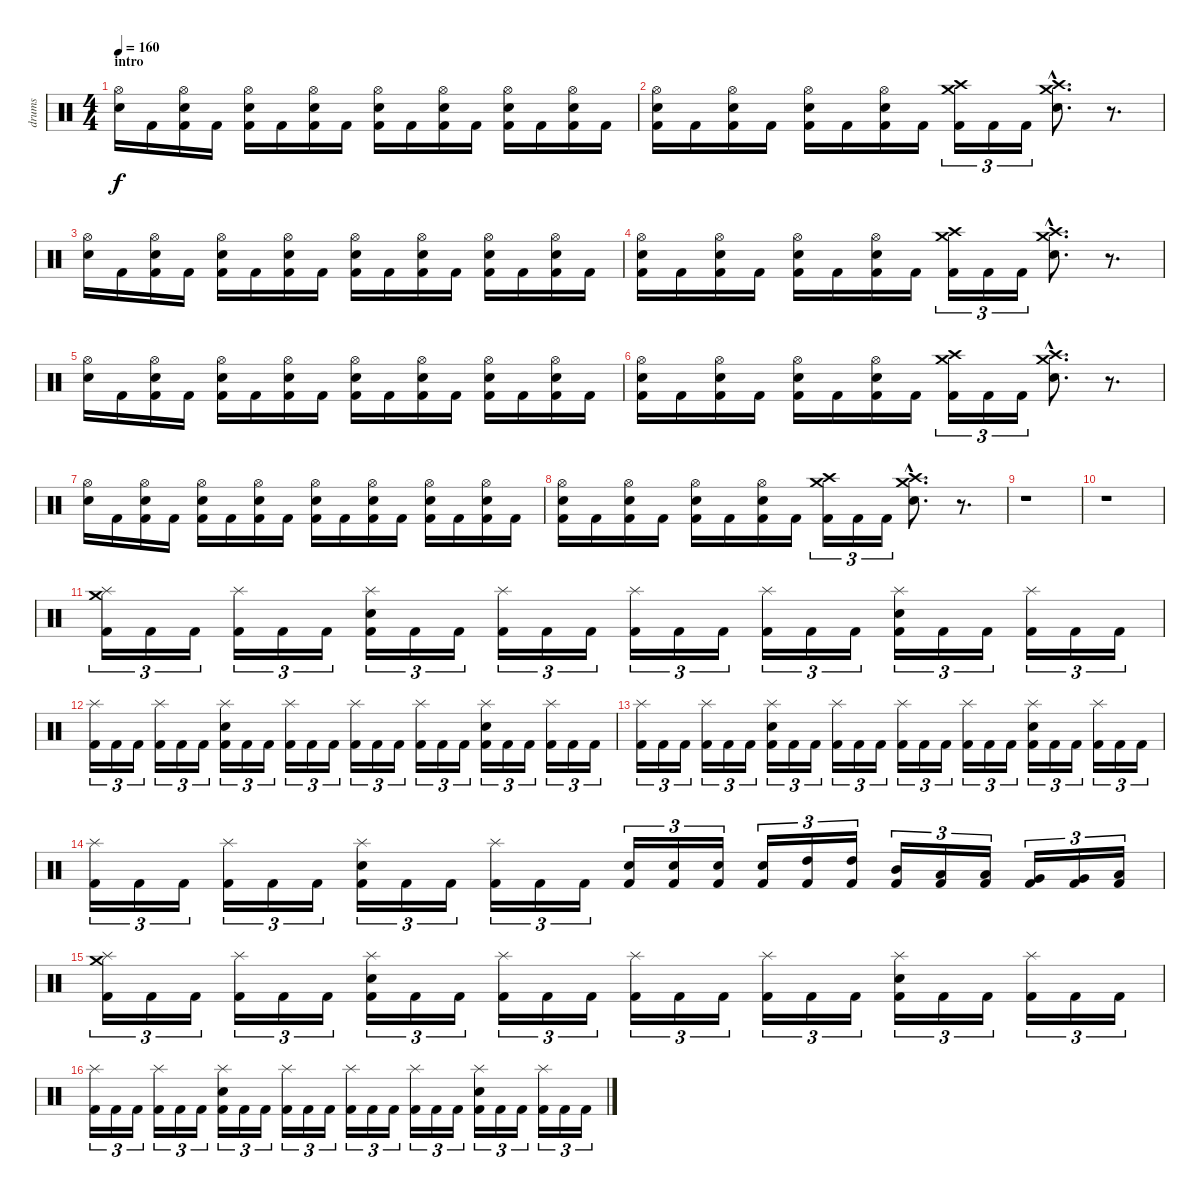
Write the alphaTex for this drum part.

\track ("drums" "drums") {instrument percussion}
\staff {score}
\articulation defaults
\ts (4 4)
\section ("" "intro")
\tempo 160
\clef neutral
\ks c
("Hi-Hat (open)" "Snare (hit) 2").16{dy f} "Kick (hit) 2".16 ("Hi-Hat (open)" "Snare (hit) 2" "Kick (hit) 2").16 "Kick (hit) 2".16 ("Hi-Hat (open)" "Snare (hit) 2" "Kick (hit) 2").16 "Kick (hit) 2".16 ("Hi-Hat (open)" "Snare (hit) 2" "Kick (hit) 2").16 "Kick (hit) 2".16 ("Hi-Hat (open)" "Snare (hit) 2" "Kick (hit) 2").16 "Kick (hit) 2".16 ("Hi-Hat (open)" "Snare (hit) 2" "Kick (hit) 2").16 "Kick (hit) 2".16 ("Hi-Hat (open)" "Snare (hit) 2" "Kick (hit) 2").16 "Kick (hit) 2".16 ("Hi-Hat (open)" "Snare (hit) 2" "Kick (hit) 2").16 "Kick (hit) 2".16 |
("Hi-Hat (open)" "Snare (hit) 2" "Kick (hit) 2").16 "Kick (hit) 2".16 ("Hi-Hat (open)" "Snare (hit) 2" "Kick (hit) 2").16 "Kick (hit) 2".16 ("Hi-Hat (open)" "Snare (hit) 2" "Kick (hit) 2").16 "Kick (hit) 2".16 ("Hi-Hat (open)" "Snare (hit) 2" "Kick (hit) 2").16 "Kick (hit) 2".16 ("Crash medium (hit)" "Crash high (hit)" "Kick (hit) 2").16{tu (3 2)} "Kick (hit) 2".16{tu (3 2)} "Kick (hit) 2".16{tu (3 2)} ("Crash medium (hit)"{hac} "Crash high (hit)"{hac} "Snare (hit) 2"{hac}).8{d} r.8{d} |
("Hi-Hat (open)" "Snare (hit) 2").16 "Kick (hit) 2".16 ("Hi-Hat (open)" "Snare (hit) 2" "Kick (hit) 2").16 "Kick (hit) 2".16 ("Hi-Hat (open)" "Snare (hit) 2" "Kick (hit) 2").16 "Kick (hit) 2".16 ("Hi-Hat (open)" "Snare (hit) 2" "Kick (hit) 2").16 "Kick (hit) 2".16 ("Hi-Hat (open)" "Snare (hit) 2" "Kick (hit) 2").16 "Kick (hit) 2".16 ("Hi-Hat (open)" "Snare (hit) 2" "Kick (hit) 2").16 "Kick (hit) 2".16 ("Hi-Hat (open)" "Snare (hit) 2" "Kick (hit) 2").16 "Kick (hit) 2".16 ("Hi-Hat (open)" "Snare (hit) 2" "Kick (hit) 2").16 "Kick (hit) 2".16 |
("Hi-Hat (open)" "Snare (hit) 2" "Kick (hit) 2").16 "Kick (hit) 2".16 ("Hi-Hat (open)" "Snare (hit) 2" "Kick (hit) 2").16 "Kick (hit) 2".16 ("Hi-Hat (open)" "Snare (hit) 2" "Kick (hit) 2").16 "Kick (hit) 2".16 ("Hi-Hat (open)" "Snare (hit) 2" "Kick (hit) 2").16 "Kick (hit) 2".16 ("Crash medium (hit)" "Crash high (hit)" "Kick (hit) 2").16{tu (3 2)} "Kick (hit) 2".16{tu (3 2)} "Kick (hit) 2".16{tu (3 2)} ("Crash medium (hit)"{hac} "Crash high (hit)"{hac} "Snare (hit) 2"{hac}).8{d} r.8{d} |
("Hi-Hat (open)" "Snare (hit) 2").16 "Kick (hit) 2".16 ("Hi-Hat (open)" "Snare (hit) 2" "Kick (hit) 2").16 "Kick (hit) 2".16 ("Hi-Hat (open)" "Snare (hit) 2" "Kick (hit) 2").16 "Kick (hit) 2".16 ("Hi-Hat (open)" "Snare (hit) 2" "Kick (hit) 2").16 "Kick (hit) 2".16 ("Hi-Hat (open)" "Snare (hit) 2" "Kick (hit) 2").16 "Kick (hit) 2".16 ("Hi-Hat (open)" "Snare (hit) 2" "Kick (hit) 2").16 "Kick (hit) 2".16 ("Hi-Hat (open)" "Snare (hit) 2" "Kick (hit) 2").16 "Kick (hit) 2".16 ("Hi-Hat (open)" "Snare (hit) 2" "Kick (hit) 2").16 "Kick (hit) 2".16 |
("Hi-Hat (open)" "Snare (hit) 2" "Kick (hit) 2").16 "Kick (hit) 2".16 ("Hi-Hat (open)" "Snare (hit) 2" "Kick (hit) 2").16 "Kick (hit) 2".16 ("Hi-Hat (open)" "Snare (hit) 2" "Kick (hit) 2").16 "Kick (hit) 2".16 ("Hi-Hat (open)" "Snare (hit) 2" "Kick (hit) 2").16 "Kick (hit) 2".16 ("Crash medium (hit)" "Crash high (hit)" "Kick (hit) 2").16{tu (3 2)} "Kick (hit) 2".16{tu (3 2)} "Kick (hit) 2".16{tu (3 2)} ("Crash medium (hit)"{hac} "Crash high (hit)"{hac} "Snare (hit) 2"{hac}).8{d} r.8{d} |
("Hi-Hat (open)" "Snare (hit) 2").16 "Kick (hit) 2".16 ("Hi-Hat (open)" "Snare (hit) 2" "Kick (hit) 2").16 "Kick (hit) 2".16 ("Hi-Hat (open)" "Snare (hit) 2" "Kick (hit) 2").16 "Kick (hit) 2".16 ("Hi-Hat (open)" "Snare (hit) 2" "Kick (hit) 2").16 "Kick (hit) 2".16 ("Hi-Hat (open)" "Snare (hit) 2" "Kick (hit) 2").16 "Kick (hit) 2".16 ("Hi-Hat (open)" "Snare (hit) 2" "Kick (hit) 2").16 "Kick (hit) 2".16 ("Hi-Hat (open)" "Snare (hit) 2" "Kick (hit) 2").16 "Kick (hit) 2".16 ("Hi-Hat (open)" "Snare (hit) 2" "Kick (hit) 2").16 "Kick (hit) 2".16 |
("Hi-Hat (open)" "Snare (hit) 2" "Kick (hit) 2").16 "Kick (hit) 2".16 ("Hi-Hat (open)" "Snare (hit) 2" "Kick (hit) 2").16 "Kick (hit) 2".16 ("Hi-Hat (open)" "Snare (hit) 2" "Kick (hit) 2").16 "Kick (hit) 2".16 ("Hi-Hat (open)" "Snare (hit) 2" "Kick (hit) 2").16 "Kick (hit) 2".16 ("Crash medium (hit)" "Crash high (hit)" "Kick (hit) 2").16{tu (3 2)} "Kick (hit) 2".16{tu (3 2)} "Kick (hit) 2".16{tu (3 2)} ("Crash medium (hit)"{hac} "Crash high (hit)"{hac} "Snare (hit) 2"{hac}).8{d} r.8{d} |
r.1 |
r.1 |
("Splash (hit)" "Crash medium (hit)" "Kick (hit) 2").16{tu (3 2)} "Kick (hit) 2".16{tu (3 2)} "Kick (hit) 2".16{tu (3 2)} ("Splash (hit)" "Kick (hit) 2").16{tu (3 2)} "Kick (hit) 2".16{tu (3 2)} "Kick (hit) 2".16{tu (3 2)} ("Splash (hit)" "Snare (hit) 2" "Kick (hit) 2").16{tu (3 2)} "Kick (hit) 2".16{tu (3 2)} "Kick (hit) 2".16{tu (3 2)} ("Splash (hit)" "Kick (hit) 2").16{tu (3 2)} "Kick (hit) 2".16{tu (3 2)} "Kick (hit) 2".16{tu (3 2)} ("Splash (hit)" "Kick (hit) 2").16{tu (3 2)} "Kick (hit) 2".16{tu (3 2)} "Kick (hit) 2".16{tu (3 2)} ("Splash (hit)" "Kick (hit) 2").16{tu (3 2)} "Kick (hit) 2".16{tu (3 2)} "Kick (hit) 2".16{tu (3 2)} ("Splash (hit)" "Snare (hit) 2" "Kick (hit) 2").16{tu (3 2)} "Kick (hit) 2".16{tu (3 2)} "Kick (hit) 2".16{tu (3 2)} ("Splash (hit)" "Kick (hit) 2").16{tu (3 2)} "Kick (hit) 2".16{tu (3 2)} "Kick (hit) 2".16{tu (3 2)} |
("Splash (hit)" "Kick (hit) 2").16{tu (3 2)} "Kick (hit) 2".16{tu (3 2)} "Kick (hit) 2".16{tu (3 2)} ("Splash (hit)" "Kick (hit) 2").16{tu (3 2)} "Kick (hit) 2".16{tu (3 2)} "Kick (hit) 2".16{tu (3 2)} ("Splash (hit)" "Snare (hit) 2" "Kick (hit) 2").16{tu (3 2)} "Kick (hit) 2".16{tu (3 2)} "Kick (hit) 2".16{tu (3 2)} ("Splash (hit)" "Kick (hit) 2").16{tu (3 2)} "Kick (hit) 2".16{tu (3 2)} "Kick (hit) 2".16{tu (3 2)} ("Splash (hit)" "Kick (hit) 2").16{tu (3 2)} "Kick (hit) 2".16{tu (3 2)} "Kick (hit) 2".16{tu (3 2)} ("Splash (hit)" "Kick (hit) 2").16{tu (3 2)} "Kick (hit) 2".16{tu (3 2)} "Kick (hit) 2".16{tu (3 2)} ("Splash (hit)" "Snare (hit) 2" "Kick (hit) 2").16{tu (3 2)} "Kick (hit) 2".16{tu (3 2)} "Kick (hit) 2".16{tu (3 2)} ("Splash (hit)" "Kick (hit) 2").16{tu (3 2)} "Kick (hit) 2".16{tu (3 2)} "Kick (hit) 2".16{tu (3 2)} |
("Splash (hit)" "Kick (hit) 2").16{tu (3 2)} "Kick (hit) 2".16{tu (3 2)} "Kick (hit) 2".16{tu (3 2)} ("Splash (hit)" "Kick (hit) 2").16{tu (3 2)} "Kick (hit) 2".16{tu (3 2)} "Kick (hit) 2".16{tu (3 2)} ("Splash (hit)" "Snare (hit) 2" "Kick (hit) 2").16{tu (3 2)} "Kick (hit) 2".16{tu (3 2)} "Kick (hit) 2".16{tu (3 2)} ("Splash (hit)" "Kick (hit) 2").16{tu (3 2)} "Kick (hit) 2".16{tu (3 2)} "Kick (hit) 2".16{tu (3 2)} ("Splash (hit)" "Kick (hit) 2").16{tu (3 2)} "Kick (hit) 2".16{tu (3 2)} "Kick (hit) 2".16{tu (3 2)} ("Splash (hit)" "Kick (hit) 2").16{tu (3 2)} "Kick (hit) 2".16{tu (3 2)} "Kick (hit) 2".16{tu (3 2)} ("Splash (hit)" "Snare (hit) 2" "Kick (hit) 2").16{tu (3 2)} "Kick (hit) 2".16{tu (3 2)} "Kick (hit) 2".16{tu (3 2)} ("Splash (hit)" "Kick (hit) 2").16{tu (3 2)} "Kick (hit) 2".16{tu (3 2)} "Kick (hit) 2".16{tu (3 2)} |
("Splash (hit)" "Kick (hit) 2").16{tu (3 2)} "Kick (hit) 2".16{tu (3 2)} "Kick (hit) 2".16{tu (3 2)} ("Splash (hit)" "Kick (hit) 2").16{tu (3 2)} "Kick (hit) 2".16{tu (3 2)} "Kick (hit) 2".16{tu (3 2)} ("Splash (hit)" "Snare (hit) 2" "Kick (hit) 2").16{tu (3 2)} "Kick (hit) 2".16{tu (3 2)} "Kick (hit) 2".16{tu (3 2)} ("Splash (hit)" "Kick (hit) 2").16{tu (3 2)} "Kick (hit) 2".16{tu (3 2)} "Kick (hit) 2".16{tu (3 2)} ("Snare (hit) 2" "Kick (hit) 2").16{tu (3 2)} ("Snare (hit) 2" "Kick (hit) 2").16{tu (3 2)} ("Snare (hit) 2" "Kick (hit) 2").16{tu (3 2)} ("Snare (hit) 2" "Kick (hit) 2").16{tu (3 2)} ("High Tom (hit)" "Kick (hit) 2").16{tu (3 2)} ("High Tom (hit)" "Kick (hit) 2").16{tu (3 2)} ("Mid Tom (hit)" "Kick (hit) 2").16{tu (3 2)} ("Low Tom (hit)" "Kick (hit) 2").16{tu (3 2)} ("Low Tom (hit)" "Kick (hit) 2").16{tu (3 2)} ("Very Low Tom (hit)" "Kick (hit) 2").16{tu (3 2)} ("Very Low Tom (hit)" "Kick (hit) 2").16{tu (3 2)} ("Low Floor Tom (hit)" "Kick (hit) 2").16{tu (3 2)} |
("Splash (hit)" "Crash medium (hit)" "Kick (hit) 2").16{tu (3 2)} "Kick (hit) 2".16{tu (3 2)} "Kick (hit) 2".16{tu (3 2)} ("Splash (hit)" "Kick (hit) 2").16{tu (3 2)} "Kick (hit) 2".16{tu (3 2)} "Kick (hit) 2".16{tu (3 2)} ("Splash (hit)" "Snare (hit) 2" "Kick (hit) 2").16{tu (3 2)} "Kick (hit) 2".16{tu (3 2)} "Kick (hit) 2".16{tu (3 2)} ("Splash (hit)" "Kick (hit) 2").16{tu (3 2)} "Kick (hit) 2".16{tu (3 2)} "Kick (hit) 2".16{tu (3 2)} ("Splash (hit)" "Kick (hit) 2").16{tu (3 2)} "Kick (hit) 2".16{tu (3 2)} "Kick (hit) 2".16{tu (3 2)} ("Splash (hit)" "Kick (hit) 2").16{tu (3 2)} "Kick (hit) 2".16{tu (3 2)} "Kick (hit) 2".16{tu (3 2)} ("Splash (hit)" "Snare (hit) 2" "Kick (hit) 2").16{tu (3 2)} "Kick (hit) 2".16{tu (3 2)} "Kick (hit) 2".16{tu (3 2)} ("Splash (hit)" "Kick (hit) 2").16{tu (3 2)} "Kick (hit) 2".16{tu (3 2)} "Kick (hit) 2".16{tu (3 2)} |
("Splash (hit)" "Kick (hit) 2").16{tu (3 2)} "Kick (hit) 2".16{tu (3 2)} "Kick (hit) 2".16{tu (3 2)} ("Splash (hit)" "Kick (hit) 2").16{tu (3 2)} "Kick (hit) 2".16{tu (3 2)} "Kick (hit) 2".16{tu (3 2)} ("Splash (hit)" "Snare (hit) 2" "Kick (hit) 2").16{tu (3 2)} "Kick (hit) 2".16{tu (3 2)} "Kick (hit) 2".16{tu (3 2)} ("Splash (hit)" "Kick (hit) 2").16{tu (3 2)} "Kick (hit) 2".16{tu (3 2)} "Kick (hit) 2".16{tu (3 2)} ("Splash (hit)" "Kick (hit) 2").16{tu (3 2)} "Kick (hit) 2".16{tu (3 2)} "Kick (hit) 2".16{tu (3 2)} ("Splash (hit)" "Kick (hit) 2").16{tu (3 2)} "Kick (hit) 2".16{tu (3 2)} "Kick (hit) 2".16{tu (3 2)} ("Splash (hit)" "Snare (hit) 2" "Kick (hit) 2").16{tu (3 2)} "Kick (hit) 2".16{tu (3 2)} "Kick (hit) 2".16{tu (3 2)} ("Splash (hit)" "Kick (hit) 2").16{tu (3 2)} "Kick (hit) 2".16{tu (3 2)} "Kick (hit) 2".16{tu (3 2)}
